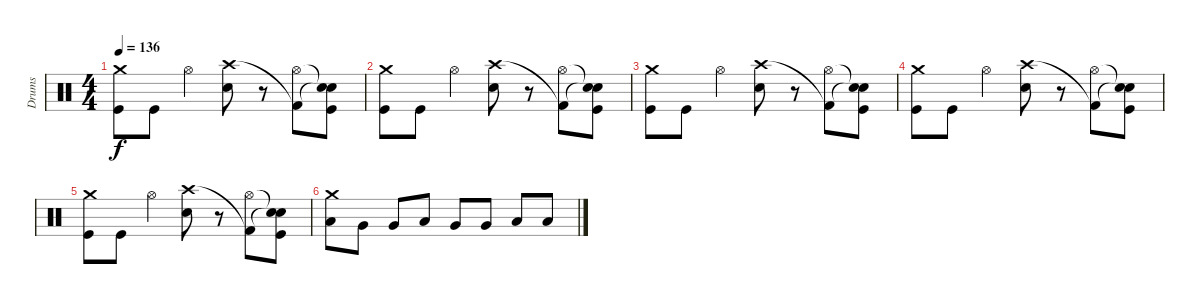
\track ("Drums" "Drums") {instrument percussion}
\staff {score}
\articulation defaults
\ts (4 4)
\tempo 136
\clef neutral
\ks c
("Crash medium (hit)" "Kick (hit)").8{dy f} "Kick (hit)".8 "Hi-Hat (open)".4 ("Crash high (hit)" "Electric Snare (hit)").8 r.8 ("Kick (hit) 2"{t} "Hi-Hat (open)").8 ("Snare (hit)"{t} "Snare (hit)"{t} "Kick (hit)").8 |
("Crash medium (hit)" "Kick (hit)").8 "Kick (hit)".8 "Hi-Hat (open)".4 ("Crash high (hit)" "Electric Snare (hit)").8 r.8 ("Kick (hit) 2"{t} "Hi-Hat (open)").8 ("Snare (hit)"{t} "Snare (hit)"{t} "Kick (hit)").8 |
("Crash medium (hit)" "Kick (hit)").8 "Kick (hit)".8 "Hi-Hat (open)".4 ("Crash high (hit)" "Electric Snare (hit)").8 r.8 ("Kick (hit) 2"{t} "Hi-Hat (open)").8 ("Snare (hit)"{t} "Snare (hit)"{t} "Kick (hit)").8 |
("Crash medium (hit)" "Kick (hit)").8 "Kick (hit)".8 "Hi-Hat (open)".4 ("Crash high (hit)" "Electric Snare (hit)").8 r.8 ("Kick (hit) 2"{t} "Hi-Hat (open)").8 ("Snare (hit)"{t} "Snare (hit)"{t} "Kick (hit)").8 |
("Crash medium (hit)" "Kick (hit)").8 "Kick (hit)".8 "Hi-Hat (open)".4 ("Crash high (hit)" "Electric Snare (hit)").8 r.8 ("Kick (hit) 2"{t} "Hi-Hat (open)").8 ("Snare (hit)"{t} "Snare (hit)"{t} "Kick (hit)").8 |
("Crash medium (hit)" "Low Tom (hit)").8 "Very Low Tom (hit)".8 "Very Low Tom (hit)".8 "Low Tom (hit)".8 "Very Low Tom (hit)".8 "Very Low Tom (hit)".8 "Low Tom (hit)".8 "Low Tom (hit)".8
